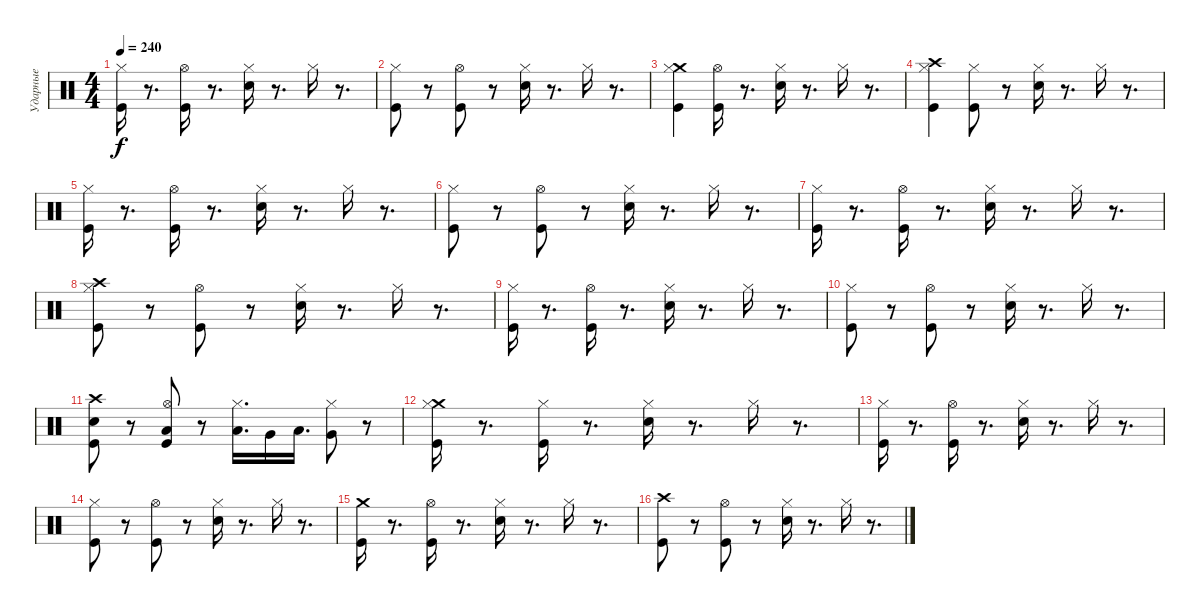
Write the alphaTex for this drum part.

\track ("Ударные" "Ударные") {instrument percussion}
\staff {score}
\articulation defaults
\ts (4 4)
\tempo 240
\clef neutral
\ks c
("Kick (hit)" "Hi-Hat (closed)").16{dy f} r.8{d} ("Kick (hit)" "Hi-Hat (open)").16 r.8{d} ("Snare (hit) 2" "Hi-Hat (closed)").16 r.8{d} "Hi-Hat (closed)".16 r.8{d} |
("Hi-Hat (closed)" "Kick (hit)").8 r.8 ("Kick (hit)" "Hi-Hat (open)").8 r.8 ("Snare (hit) 2" "Hi-Hat (closed)").16 r.8{d} "Hi-Hat (closed)".16 r.8{d} |
("Crash medium (hit)" "Kick (hit)" "Hi-Hat (closed)").4 ("Kick (hit)" "Hi-Hat (open)").16 r.8{d} ("Snare (hit) 2" "Hi-Hat (closed)").16 r.8{d} "Hi-Hat (closed)".16 r.8{d} |
("Crash high (hit)" "Hi-Hat (closed)" "Kick (hit)").4 ("Kick (hit)" "Hi-Hat (closed)").8 r.8 ("Snare (hit) 2" "Hi-Hat (closed)").16 r.8{d} "Hi-Hat (closed)".16 r.8{d} |
("Kick (hit)" "Hi-Hat (closed)").16 r.8{d} ("Kick (hit)" "Hi-Hat (open)").16 r.8{d} ("Snare (hit) 2" "Hi-Hat (closed)").16 r.8{d} "Hi-Hat (closed)".16 r.8{d} |
("Hi-Hat (closed)" "Kick (hit)").8 r.8 ("Kick (hit)" "Hi-Hat (open)").8 r.8 ("Snare (hit) 2" "Hi-Hat (closed)").16 r.8{d} "Hi-Hat (closed)".16 r.8{d} |
("Kick (hit)" "Hi-Hat (closed)").16 r.8{d} ("Kick (hit)" "Hi-Hat (open)").16 r.8{d} ("Snare (hit) 2" "Hi-Hat (closed)").16 r.8{d} "Hi-Hat (closed)".16 r.8{d} |
("Crash high (hit)" "Hi-Hat (closed)" "Kick (hit)").8 r.8 ("Kick (hit)" "Hi-Hat (open)").8 r.8 ("Snare (hit) 2" "Hi-Hat (closed)").16 r.8{d} "Hi-Hat (closed)".16 r.8{d} |
("Kick (hit)" "Hi-Hat (closed)").16 r.8{d} ("Kick (hit)" "Hi-Hat (open)").16 r.8{d} ("Snare (hit) 2" "Hi-Hat (closed)").16 r.8{d} "Hi-Hat (closed)".16 r.8{d} |
("Hi-Hat (closed)" "Kick (hit)").8 r.8 ("Kick (hit)" "Hi-Hat (open)").8 r.8 ("Snare (hit) 2" "Hi-Hat (closed)").16 r.8{d} "Hi-Hat (closed)".16 r.8{d} |
("Snare (hit) 2" "Kick (hit)" "Crash high (hit)").8 r.8 ("Low Tom (hit)" "Kick (hit)" "Hi-Hat (open)").8 r.8 ("Low Tom (hit)" "Hi-Hat (closed)").16{d} "Very Low Tom (hit)".16 "Low Tom (hit)".16{d} ("Very Low Tom (hit)" "Hi-Hat (closed)").8 r.8 |
("Kick (hit)" "Crash medium (hit)" "Hi-Hat (closed)").16 r.8{d} ("Kick (hit)" "Hi-Hat (closed)").16 r.8{d} ("Snare (hit) 2" "Hi-Hat (closed)").16 r.8{d} "Hi-Hat (closed)".16 r.8{d} |
("Kick (hit)" "Hi-Hat (closed)").16 r.8{d} ("Kick (hit)" "Hi-Hat (open)").16 r.8{d} ("Snare (hit) 2" "Hi-Hat (closed)").16 r.8{d} "Hi-Hat (closed)".16 r.8{d} |
("Hi-Hat (closed)" "Kick (hit)").8 r.8 ("Kick (hit)" "Hi-Hat (open)").8 r.8 ("Snare (hit) 2" "Hi-Hat (closed)").16 r.8{d} "Hi-Hat (closed)".16 r.8{d} |
("Kick (hit)" "Crash medium (hit)").16 r.8{d} ("Kick (hit)" "Hi-Hat (open)").16 r.8{d} ("Snare (hit) 2" "Hi-Hat (closed)").16 r.8{d} "Hi-Hat (closed)".16 r.8{d} |
("Crash high (hit)" "Kick (hit)").8 r.8 ("Kick (hit)" "Hi-Hat (open)").8 r.8 ("Snare (hit) 2" "Hi-Hat (closed)").16 r.8{d} "Hi-Hat (closed)".16 r.8{d}
